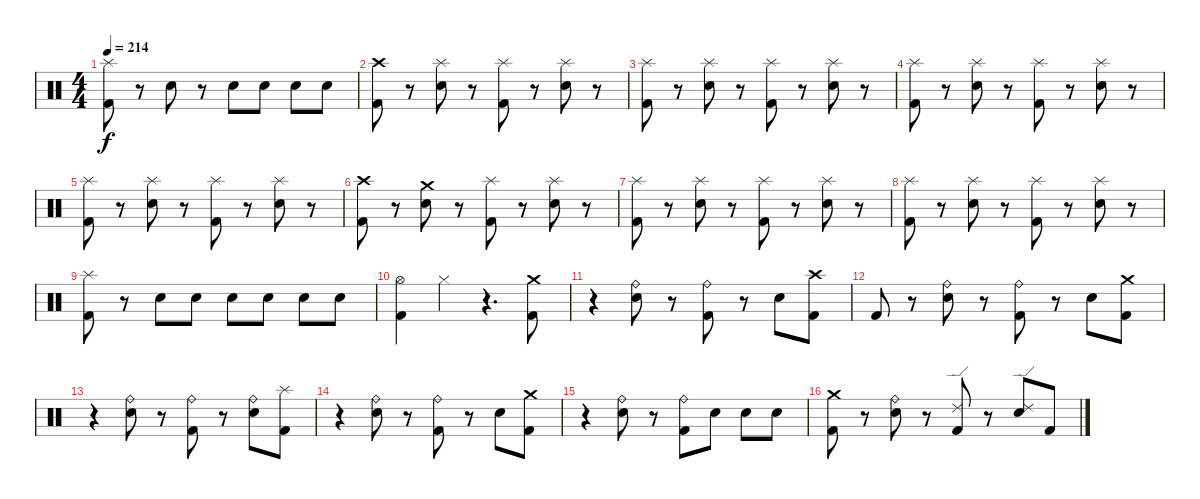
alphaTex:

\track "" {instrument percussion}
\staff {score}
\articulation defaults
\ts (4 4)
\tempo 214
\clef neutral
\ks c
("Splash (hit)" "Kick (hit) 2").8{dy f} r.8 "Electric Snare (hit)".8 r.8 "Electric Snare (hit)".8 "Electric Snare (hit)".8 "Electric Snare (hit)".8 "Electric Snare (hit)".8 |
("Crash high (hit)" "Kick (hit) 2").8 r.8 ("Splash (hit)" "Electric Snare (hit)").8 r.8 ("Splash (hit)" "Kick (hit) 2").8 r.8 ("Splash (hit)" "Electric Snare (hit)").8 r.8 |
("Splash (hit)" "Kick (hit) 2").8 r.8 ("Splash (hit)" "Electric Snare (hit)").8 r.8 ("Splash (hit)" "Kick (hit) 2").8 r.8 ("Splash (hit)" "Electric Snare (hit)").8 r.8 |
("Splash (hit)" "Kick (hit) 2").8 r.8 ("Splash (hit)" "Electric Snare (hit)").8 r.8 ("Splash (hit)" "Kick (hit) 2").8 r.8 ("Splash (hit)" "Electric Snare (hit)").8 r.8 |
("Splash (hit)" "Kick (hit) 2").8 r.8 ("Splash (hit)" "Electric Snare (hit)").8 r.8 ("Splash (hit)" "Kick (hit) 2").8 r.8 ("Splash (hit)" "Electric Snare (hit)").8 r.8 |
("Kick (hit) 2" "Crash high (hit)").8 r.8 ("Electric Snare (hit)" "Crash medium (hit)").8 r.8 ("Splash (hit)" "Kick (hit) 2").8 r.8 ("Splash (hit)" "Electric Snare (hit)").8 r.8 |
("Splash (hit)" "Kick (hit) 2").8 r.8 ("Splash (hit)" "Electric Snare (hit)").8 r.8 ("Splash (hit)" "Kick (hit) 2").8 r.8 ("Splash (hit)" "Electric Snare (hit)").8 r.8 |
("Splash (hit)" "Kick (hit) 2").8 r.8 ("Splash (hit)" "Electric Snare (hit)").8 r.8 ("Splash (hit)" "Kick (hit) 2").8 r.8 ("Splash (hit)" "Electric Snare (hit)").8 r.8 |
("Splash (hit)" "Kick (hit) 2").8 r.8 "Electric Snare (hit)".8 "Electric Snare (hit)".8 "Electric Snare (hit)".8 "Electric Snare (hit)".8 "Electric Snare (hit)".8 "Electric Snare (hit)".8 |
("Hi-Hat (open)" "Kick (hit) 2").4 "Hi-Hat (closed)".4 r.4{d} ("Crash medium (hit)" "Kick (hit) 2").8 |
r.4 ("Ride (bell)" "Electric Snare (hit)").8 r.8 ("Ride (bell)" "Kick (hit) 2").8 r.8 "Electric Snare (hit)".8 ("Crash high (hit)" "Kick (hit) 2").8 |
"Kick (hit) 2".8 r.8 ("Ride (bell)" "Electric Snare (hit)").8 r.8 ("Ride (bell)" "Kick (hit) 2").8 r.8 "Electric Snare (hit)".8 ("Crash medium (hit)" "Kick (hit) 2").8 |
r.4 ("Ride (bell)" "Electric Snare (hit)").8 r.8 ("Ride (bell)" "Kick (hit) 2").8 r.8 ("Ride (bell)" "Electric Snare (hit)").8 ("Splash (hit)" "Kick (hit) 2").8 |
r.4 ("Ride (bell)" "Electric Snare (hit)").8 r.8 ("Ride (bell)" "Kick (hit) 2").8 r.8 "Electric Snare (hit)".8 ("Crash medium (hit)" "Kick (hit) 2").8 |
r.4 ("Ride (bell)" "Electric Snare (hit)").8 r.8 ("Ride (bell)" "Kick (hit) 2").8 "Snare (hit) 2".8 "Snare (hit) 2".8 "Snare (hit) 2".8 |
("Crash medium (hit)" "Kick (hit) 2").8 r.8 ("Ride (bell)" "Electric Snare (hit)").8 r.8 ("Ride (edge) 2" "Kick (hit) 2").8 r.8 ("Ride (edge) 2" "Electric Snare (hit)").8 "Kick (hit) 2".8
